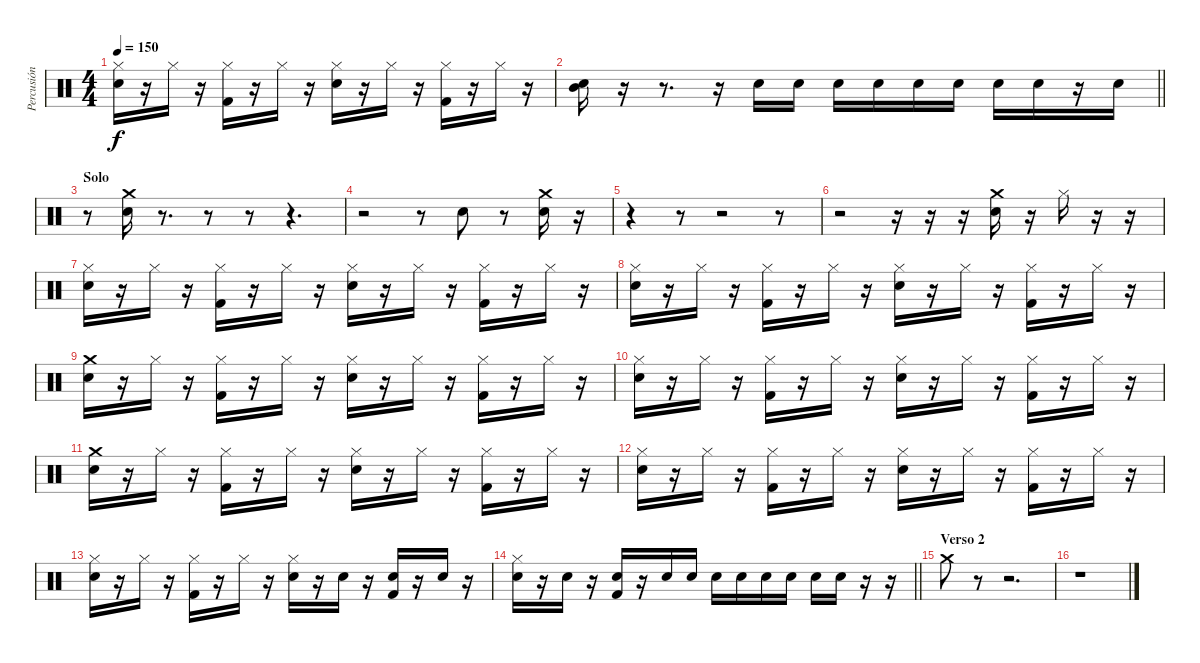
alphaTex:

\track ("Percusión" "Percusión") {instrument percussion}
\staff {score}
\articulation defaults
\ts (4 4)
\tempo 150
\clef neutral
\ks c
("Hi-Hat (closed)" "Snare (hit) 2").16{dy f} r.16 "Hi-Hat (closed)".16 r.16 ("Hi-Hat (closed)" "Kick (hit) 2").16 r.16 "Hi-Hat (closed)".16 r.16 ("Hi-Hat (closed)" "Snare (hit) 2").16 r.16 "Hi-Hat (closed)".16 r.16 ("Hi-Hat (closed)" "Kick (hit) 2").16 r.16 "Hi-Hat (closed)".16 r.16 |
\barLineRight lightlight
("Mid Tom (hit)" "Snare (hit) 2").16 r.16 r.8{d} r.16 "Snare (hit) 2".16 "Snare (hit) 2".16 "Snare (hit) 2".16 "Snare (hit) 2".16 "Snare (hit) 2".16 "Snare (hit) 2".16 "Snare (hit) 2".16 "Snare (hit) 2".16 r.16 "Snare (hit) 2".16 |
\section ("" "Solo")
r.8 ("Crash medium (hit)" "Snare (hit) 2").16 r.8{d} r.8 r.8 r.4{d} |
r.2 r.8 "Snare (hit) 2".8 r.8 ("Crash medium (hit)" "Snare (hit) 2").16 r.16 |
r.4 r.8 r.2 r.8 |
r.2 r.16 r.16 r.16 ("Crash medium (hit)" "Snare (hit) 2").16 r.16 "Hi-Hat (closed)".16 r.16 r.16 |
("Hi-Hat (closed)" "Snare (hit) 2").16 r.16 "Hi-Hat (closed)".16 r.16 ("Hi-Hat (closed)" "Kick (hit) 2").16 r.16 "Hi-Hat (closed)".16 r.16 ("Hi-Hat (closed)" "Snare (hit) 2").16 r.16 "Hi-Hat (closed)".16 r.16 ("Hi-Hat (closed)" "Kick (hit) 2").16 r.16 "Hi-Hat (closed)".16 r.16 |
("Hi-Hat (closed)" "Snare (hit) 2").16 r.16 "Hi-Hat (closed)".16 r.16 ("Hi-Hat (closed)" "Kick (hit) 2").16 r.16 "Hi-Hat (closed)".16 r.16 ("Hi-Hat (closed)" "Snare (hit) 2").16 r.16 "Hi-Hat (closed)".16 r.16 ("Hi-Hat (closed)" "Kick (hit) 2").16 r.16 "Hi-Hat (closed)".16 r.16 |
("Crash medium (hit)" "Snare (hit) 2").16 r.16 "Hi-Hat (closed)".16 r.16 ("Hi-Hat (closed)" "Kick (hit) 2").16 r.16 "Hi-Hat (closed)".16 r.16 ("Hi-Hat (closed)" "Snare (hit) 2").16 r.16 "Hi-Hat (closed)".16 r.16 ("Hi-Hat (closed)" "Kick (hit) 2").16 r.16 "Hi-Hat (closed)".16 r.16 |
("Hi-Hat (closed)" "Snare (hit) 2").16 r.16 "Hi-Hat (closed)".16 r.16 ("Hi-Hat (closed)" "Kick (hit) 2").16 r.16 "Hi-Hat (closed)".16 r.16 ("Hi-Hat (closed)" "Snare (hit) 2").16 r.16 "Hi-Hat (closed)".16 r.16 ("Hi-Hat (closed)" "Kick (hit) 2").16 r.16 "Hi-Hat (closed)".16 r.16 |
("Crash medium (hit)" "Snare (hit) 2").16 r.16 "Hi-Hat (closed)".16 r.16 ("Hi-Hat (closed)" "Kick (hit) 2").16 r.16 "Hi-Hat (closed)".16 r.16 ("Hi-Hat (closed)" "Snare (hit) 2").16 r.16 "Hi-Hat (closed)".16 r.16 ("Hi-Hat (closed)" "Kick (hit) 2").16 r.16 "Hi-Hat (closed)".16 r.16 |
("Hi-Hat (closed)" "Snare (hit) 2").16 r.16 "Hi-Hat (closed)".16 r.16 ("Hi-Hat (closed)" "Kick (hit) 2").16 r.16 "Hi-Hat (closed)".16 r.16 ("Hi-Hat (closed)" "Snare (hit) 2").16 r.16 "Hi-Hat (closed)".16 r.16 ("Hi-Hat (closed)" "Kick (hit) 2").16 r.16 "Hi-Hat (closed)".16 r.16 |
("Hi-Hat (closed)" "Snare (hit) 2").16 r.16 "Hi-Hat (closed)".16 r.16 ("Hi-Hat (closed)" "Kick (hit) 2").16 r.16 "Hi-Hat (closed)".16 r.16 ("Hi-Hat (closed)" "Snare (hit) 2").16 r.16 "Snare (hit) 2".16 r.16 ("Snare (hit) 2" "Kick (hit) 2").16 r.16 "Snare (hit) 2".16 r.16 |
\barLineRight lightlight
("Hi-Hat (closed)" "Snare (hit) 2").16 r.16 "Snare (hit) 2".16 r.16 ("Snare (hit) 2" "Kick (hit) 2").16 r.16 "Snare (hit) 2".16 "Snare (hit) 2".16 "Snare (hit) 2".16 "Snare (hit) 2".16 "Snare (hit) 2".16 "Snare (hit) 2".16 "Snare (hit) 2".16 "Snare (hit) 2".16 r.16 r.16 |
\section ("" "Verso 2")
"Crash medium (hit)".8 r.8 r.2{d} |
r.1
